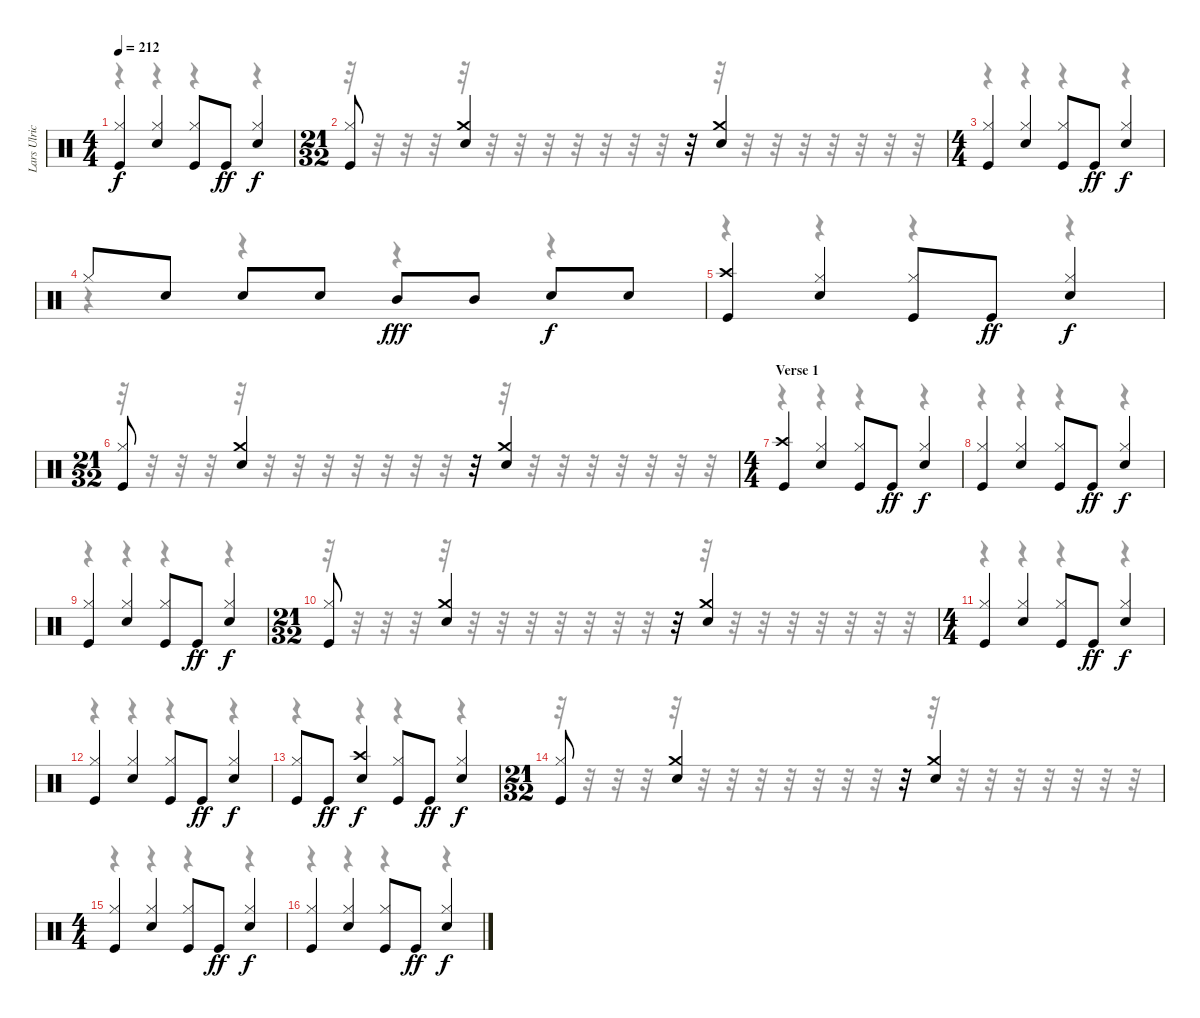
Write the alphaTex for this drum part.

\track ("Lars Ulrich" "Lars Ulric") {instrument percussion}
\staff {score}
\articulation defaults
\voice
\ts (4 4)
\tempo 212
\clef neutral
\ks c
("Hi-Hat (closed)" "Kick (hit)").4{dy f} ("Hi-Hat (closed)" "Snare (hit) 2").4 ("Hi-Hat (closed)" "Kick (hit)").8 "Kick (hit)".8{dy ff} ("Hi-Hat (closed)" "Snare (hit) 2").4{dy f} |
\ts (21 32)
("Hi-Hat (closed)" "Kick (hit)").8 ("Crash medium (hit)" "Snare (hit) 2").4 r.32 ("Crash medium (hit)" "Snare (hit) 2").4 |
\ts (4 4)
("Hi-Hat (closed)" "Kick (hit)").4 ("Hi-Hat (closed)" "Snare (hit) 2").4 ("Hi-Hat (closed)" "Kick (hit)").8 "Kick (hit)".8{dy ff} ("Hi-Hat (closed)" "Snare (hit) 2").4{dy f} |
"Hi-Hat (closed)".8 "Snare (hit) 2".8 "Snare (hit) 2".8 "Snare (hit) 2".8 "Mid Tom (hit)".8{dy fff} "Mid Tom (hit)".8 "Snare (hit) 2".8{dy f} "Snare (hit) 2".8 |
("Crash high (hit)" "Kick (hit)").4 ("Hi-Hat (closed)" "Snare (hit) 2").4 ("Hi-Hat (closed)" "Kick (hit)").8 "Kick (hit)".8{dy ff} ("Hi-Hat (closed)" "Snare (hit) 2").4{dy f} |
\ts (21 32)
("Hi-Hat (closed)" "Kick (hit)").8 ("Crash medium (hit)" "Snare (hit) 2").4 r.32 ("Crash medium (hit)" "Snare (hit) 2").4 |
\ts (4 4)
\section ("" "Verse 1")
("Crash high (hit)" "Kick (hit)").4 ("Hi-Hat (closed)" "Snare (hit) 2").4 ("Hi-Hat (closed)" "Kick (hit)").8 "Kick (hit)".8{dy ff} ("Hi-Hat (closed)" "Snare (hit) 2").4{dy f} |
("Hi-Hat (closed)" "Kick (hit)").4 ("Hi-Hat (closed)" "Snare (hit) 2").4 ("Hi-Hat (closed)" "Kick (hit)").8 "Kick (hit)".8{dy ff} ("Hi-Hat (closed)" "Snare (hit) 2").4{dy f} |
("Hi-Hat (closed)" "Kick (hit)").4 ("Hi-Hat (closed)" "Snare (hit) 2").4 ("Hi-Hat (closed)" "Kick (hit)").8 "Kick (hit)".8{dy ff} ("Hi-Hat (closed)" "Snare (hit) 2").4{dy f} |
\ts (21 32)
("Hi-Hat (closed)" "Kick (hit)").8 ("Crash medium (hit)" "Snare (hit) 2").4 r.32 ("Crash medium (hit)" "Snare (hit) 2").4 |
\ts (4 4)
("Hi-Hat (closed)" "Kick (hit)").4 ("Hi-Hat (closed)" "Snare (hit) 2").4 ("Hi-Hat (closed)" "Kick (hit)").8 "Kick (hit)".8{dy ff} ("Hi-Hat (closed)" "Snare (hit) 2").4{dy f} |
("Hi-Hat (closed)" "Kick (hit)").4 ("Hi-Hat (closed)" "Snare (hit) 2").4 ("Hi-Hat (closed)" "Kick (hit)").8 "Kick (hit)".8{dy ff} ("Hi-Hat (closed)" "Snare (hit) 2").4{dy f} |
("Hi-Hat (closed)" "Kick (hit)").8 "Kick (hit)".8{dy ff} ("Crash high (hit)" "Snare (hit) 2").4{dy f} ("Hi-Hat (closed)" "Kick (hit)").8 "Kick (hit)".8{dy ff} ("Hi-Hat (closed)" "Snare (hit) 2").4{dy f} |
\ts (21 32)
("Hi-Hat (closed)" "Kick (hit)").8 ("Crash medium (hit)" "Snare (hit) 2").4 r.32 ("Crash medium (hit)" "Snare (hit) 2").4 |
\ts (4 4)
("Hi-Hat (closed)" "Kick (hit)").4 ("Hi-Hat (closed)" "Snare (hit) 2").4 ("Hi-Hat (closed)" "Kick (hit)").8 "Kick (hit)".8{dy ff} ("Hi-Hat (closed)" "Snare (hit) 2").4{dy f} |
("Hi-Hat (closed)" "Kick (hit)").4 ("Hi-Hat (closed)" "Snare (hit) 2").4 ("Hi-Hat (closed)" "Kick (hit)").8 "Kick (hit)".8{dy ff} ("Hi-Hat (closed)" "Snare (hit) 2").4{dy f}
\voice
\clef neutral
\ottava regular
\simile none
\ks c
r.4{dy f} r.4 r.4 r.4 |
r.32 r.32 r.32 r.32 r.32 r.32 r.32 r.32 r.32 r.32 r.32 r.32 r.32 r.32 r.32 r.32 r.32 r.32 r.32 r.32 r.32 |
r.4 r.4 r.4 r.4 |
r.4 r.4 r.4 r.4 |
r.4 r.4 r.4 r.4 |
r.32 r.32 r.32 r.32 r.32 r.32 r.32 r.32 r.32 r.32 r.32 r.32 r.32 r.32 r.32 r.32 r.32 r.32 r.32 r.32 r.32 |
r.4 r.4 r.4 r.4 |
r.4 r.4 r.4 r.4 |
r.4 r.4 r.4 r.4 |
r.32 r.32 r.32 r.32 r.32 r.32 r.32 r.32 r.32 r.32 r.32 r.32 r.32 r.32 r.32 r.32 r.32 r.32 r.32 r.32 r.32 |
r.4 r.4 r.4 r.4 |
r.4 r.4 r.4 r.4 |
r.4 r.4 r.4 r.4 |
r.32 r.32 r.32 r.32 r.32 r.32 r.32 r.32 r.32 r.32 r.32 r.32 r.32 r.32 r.32 r.32 r.32 r.32 r.32 r.32 r.32 |
r.4 r.4 r.4 r.4 |
r.4 r.4 r.4 r.4
